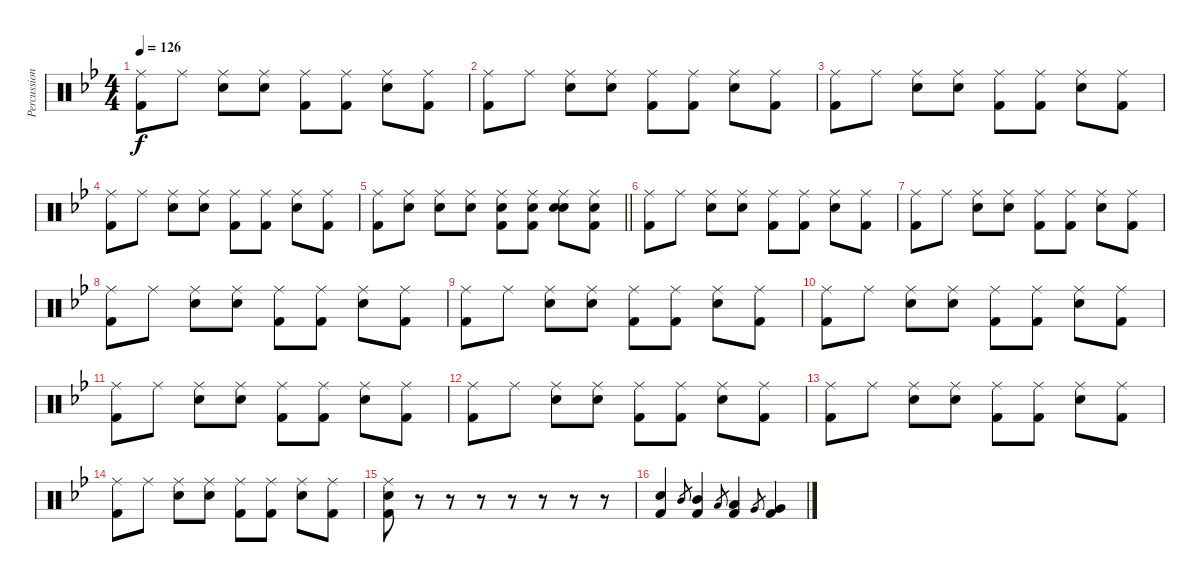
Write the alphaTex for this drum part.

\track ("Percussion" "Percussion") {instrument percussion}
\staff {score}
\articulation defaults
\ts (4 4)
\tempo 126
\clef neutral
\ks bb
("Ride (middle)" "Kick (hit) 2").8{dy f} "Ride (middle)".8 ("Ride (middle)" "Snare (hit) 2").8 ("Ride (middle)" "Snare (hit) 2").8 ("Ride (middle)" "Kick (hit) 2").8 ("Ride (middle)" "Kick (hit) 2").8 ("Ride (middle)" "Snare (hit) 2").8 ("Ride (middle)" "Kick (hit) 2").8 |
("Ride (middle)" "Kick (hit) 2").8 "Ride (middle)".8 ("Ride (middle)" "Snare (hit) 2").8 ("Ride (middle)" "Snare (hit) 2").8 ("Ride (middle)" "Kick (hit) 2").8 ("Ride (middle)" "Kick (hit) 2").8 ("Ride (middle)" "Snare (hit) 2").8 ("Ride (middle)" "Kick (hit) 2").8 |
("Ride (middle)" "Kick (hit) 2").8 "Ride (middle)".8 ("Ride (middle)" "Snare (hit) 2").8 ("Ride (middle)" "Snare (hit) 2").8 ("Ride (middle)" "Kick (hit) 2").8 ("Ride (middle)" "Kick (hit) 2").8 ("Ride (middle)" "Snare (hit) 2").8 ("Ride (middle)" "Kick (hit) 2").8 |
("Ride (middle)" "Kick (hit) 2").8 "Ride (middle)".8 ("Ride (middle)" "Snare (hit) 2").8 ("Ride (middle)" "Snare (hit) 2").8 ("Ride (middle)" "Kick (hit) 2").8 ("Ride (middle)" "Kick (hit) 2").8 ("Ride (middle)" "Snare (hit) 2").8 ("Ride (middle)" "Kick (hit) 2").8 |
\barLineRight lightlight
("Ride (middle)" "Kick (hit) 2").8 ("Ride (middle)" "Snare (hit) 2").8 ("Ride (middle)" "Snare (hit) 2").8 ("Ride (middle)" "Snare (hit) 2").8 ("Ride (middle)" "Kick (hit) 2" "Snare (hit) 2").8 ("Ride (middle)" "Kick (hit) 2" "Snare (hit) 2").8 ("Ride (middle)" "Snare (hit) 2" "Snare (hit) 2").8 ("Ride (middle)" "Kick (hit) 2" "Snare (hit) 2").8 |
("Ride (middle)" "Kick (hit) 2").8 "Ride (middle)".8 ("Ride (middle)" "Snare (hit) 2").8 ("Ride (middle)" "Snare (hit) 2").8 ("Ride (middle)" "Kick (hit) 2").8 ("Ride (middle)" "Kick (hit) 2").8 ("Ride (middle)" "Snare (hit) 2").8 ("Ride (middle)" "Kick (hit) 2").8 |
("Ride (middle)" "Kick (hit) 2").8 "Ride (middle)".8 ("Ride (middle)" "Snare (hit) 2").8 ("Ride (middle)" "Snare (hit) 2").8 ("Ride (middle)" "Kick (hit) 2").8 ("Ride (middle)" "Kick (hit) 2").8 ("Ride (middle)" "Snare (hit) 2").8 ("Ride (middle)" "Kick (hit) 2").8 |
("Ride (middle)" "Kick (hit) 2").8 "Ride (middle)".8 ("Ride (middle)" "Snare (hit) 2").8 ("Ride (middle)" "Snare (hit) 2").8 ("Ride (middle)" "Kick (hit) 2").8 ("Ride (middle)" "Kick (hit) 2").8 ("Ride (middle)" "Snare (hit) 2").8 ("Ride (middle)" "Kick (hit) 2").8 |
("Ride (middle)" "Kick (hit) 2").8 "Ride (middle)".8 ("Ride (middle)" "Snare (hit) 2").8 ("Ride (middle)" "Snare (hit) 2").8 ("Ride (middle)" "Kick (hit) 2").8 ("Ride (middle)" "Kick (hit) 2").8 ("Ride (middle)" "Snare (hit) 2").8 ("Ride (middle)" "Kick (hit) 2").8 |
("Ride (middle)" "Kick (hit) 2").8 "Ride (middle)".8 ("Ride (middle)" "Snare (hit) 2").8 ("Ride (middle)" "Snare (hit) 2").8 ("Ride (middle)" "Kick (hit) 2").8 ("Ride (middle)" "Kick (hit) 2").8 ("Ride (middle)" "Snare (hit) 2").8 ("Ride (middle)" "Kick (hit) 2").8 |
("Ride (middle)" "Kick (hit) 2").8 "Ride (middle)".8 ("Ride (middle)" "Snare (hit) 2").8 ("Ride (middle)" "Snare (hit) 2").8 ("Ride (middle)" "Kick (hit) 2").8 ("Ride (middle)" "Kick (hit) 2").8 ("Ride (middle)" "Snare (hit) 2").8 ("Ride (middle)" "Kick (hit) 2").8 |
("Ride (middle)" "Kick (hit) 2").8 "Ride (middle)".8 ("Ride (middle)" "Snare (hit) 2").8 ("Ride (middle)" "Snare (hit) 2").8 ("Ride (middle)" "Kick (hit) 2").8 ("Ride (middle)" "Kick (hit) 2").8 ("Ride (middle)" "Snare (hit) 2").8 ("Ride (middle)" "Kick (hit) 2").8 |
("Ride (middle)" "Kick (hit) 2").8 "Ride (middle)".8 ("Ride (middle)" "Snare (hit) 2").8 ("Ride (middle)" "Snare (hit) 2").8 ("Ride (middle)" "Kick (hit) 2").8 ("Ride (middle)" "Kick (hit) 2").8 ("Ride (middle)" "Snare (hit) 2").8 ("Ride (middle)" "Kick (hit) 2").8 |
("Ride (middle)" "Kick (hit) 2").8 "Ride (middle)".8 ("Ride (middle)" "Snare (hit) 2").8 ("Ride (middle)" "Snare (hit) 2").8 ("Ride (middle)" "Kick (hit) 2").8 ("Ride (middle)" "Kick (hit) 2").8 ("Ride (middle)" "Snare (hit) 2").8 ("Ride (middle)" "Kick (hit) 2").8 |
("Ride (middle)" "Kick (hit) 2" "Snare (hit) 2").8 r.8 r.8 r.8 r.8 r.8 r.8 r.8 |
("Snare (hit) 2" "Kick (hit) 2").4 "Mid Tom (hit)".8{gr} ("Mid Tom (hit)" "Kick (hit) 2").4 "Low Tom (hit)".8{gr} ("Low Tom (hit)" "Kick (hit) 2").4 "Very Low Tom (hit)".8{gr} ("Very Low Tom (hit)" "Kick (hit) 2").4
